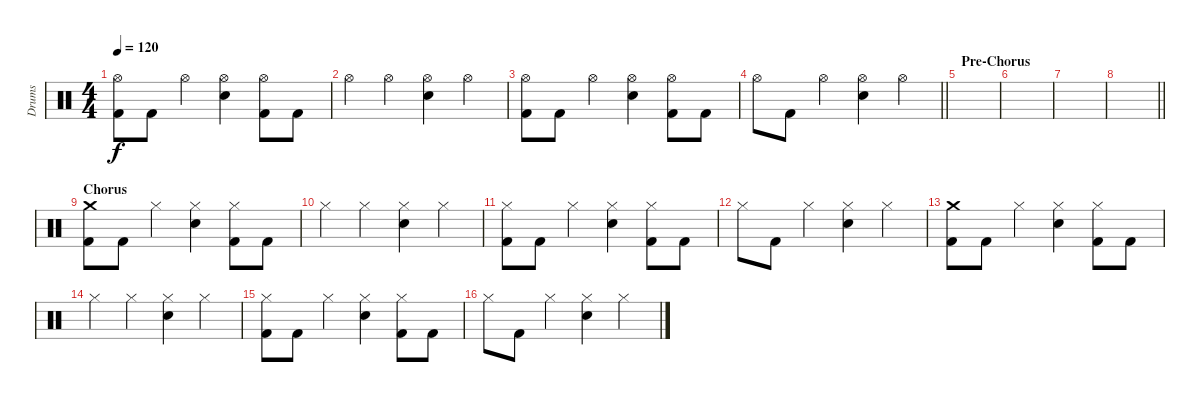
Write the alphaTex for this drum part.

\track ("Drums" "Drums") {instrument percussion}
\staff {score}
\articulation defaults
\ts (4 4)
\tempo 120
\clef neutral
\ks c
("Hi-Hat (open)" "Kick (hit) 2").8{dy f} "Kick (hit) 2".8 "Hi-Hat (open)".4 ("Hi-Hat (open)" "Snare (hit) 2").4 ("Hi-Hat (open)" "Kick (hit) 2").8 "Kick (hit) 2".8 |
"Hi-Hat (open)".4 "Hi-Hat (open)".4 ("Hi-Hat (open)" "Snare (hit) 2").4 "Hi-Hat (open)".4 |
("Hi-Hat (open)" "Kick (hit) 2").8 "Kick (hit) 2".8 "Hi-Hat (open)".4 ("Hi-Hat (open)" "Snare (hit) 2").4 ("Hi-Hat (open)" "Kick (hit) 2").8 "Kick (hit) 2".8 |
\barLineRight lightlight "Hi-Hat (open)".8 "Kick (hit) 2".8 "Hi-Hat (open)".4
("Hi-Hat (open)" "Snare (hit) 2").4 "Hi-Hat (open)".4 |
\section ("" "Pre-Chorus")
|
|
|
\barLineRight lightlight
|
\section ("" "Chorus")
("Crash medium (hit)" "Kick (hit) 2").8 "Kick (hit) 2".8 "Hi-Hat (closed)".4 ("Hi-Hat (closed)" "Snare (hit) 2").4 ("Hi-Hat (closed)" "Kick (hit) 2").8 "Kick (hit) 2".8 |
"Hi-Hat (closed)".4 "Hi-Hat (closed)".4 ("Hi-Hat (closed)" "Snare (hit) 2").4 "Hi-Hat (closed)".4 |
("Hi-Hat (closed)" "Kick (hit) 2").8 "Kick (hit) 2".8 "Hi-Hat (closed)".4 ("Hi-Hat (closed)" "Snare (hit) 2").4 ("Hi-Hat (closed)" "Kick (hit) 2").8 "Kick (hit) 2".8 |
"Hi-Hat (closed)".8 "Kick (hit) 2".8 "Hi-Hat (closed)".4 ("Hi-Hat (closed)" "Snare (hit) 2").4 "Hi-Hat (closed)".4 |
("Crash medium (hit)" "Kick (hit) 2").8 "Kick (hit) 2".8 "Hi-Hat (closed)".4 ("Hi-Hat (closed)" "Snare (hit) 2").4 ("Hi-Hat (closed)" "Kick (hit) 2").8 "Kick (hit) 2".8 |
"Hi-Hat (closed)".4 "Hi-Hat (closed)".4 ("Hi-Hat (closed)" "Snare (hit) 2").4 "Hi-Hat (closed)".4 |
("Hi-Hat (closed)" "Kick (hit) 2").8 "Kick (hit) 2".8 "Hi-Hat (closed)".4 ("Hi-Hat (closed)" "Snare (hit) 2").4 ("Hi-Hat (closed)" "Kick (hit) 2").8 "Kick (hit) 2".8 |
"Hi-Hat (closed)".8 "Kick (hit) 2".8 "Hi-Hat (closed)".4 ("Hi-Hat (closed)" "Snare (hit) 2").4 "Hi-Hat (closed)".4
